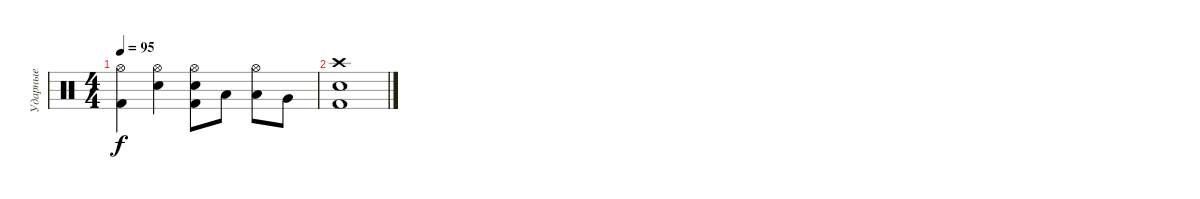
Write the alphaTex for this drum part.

\track ("Ударные" "Ударные") {instrument percussion}
\staff {score}
\articulation defaults
\ts (4 4)
\tempo 95
\clef neutral
\ks c
("Hi-Hat (open)" "Kick (hit) 2").4{dy f} ("Hi-Hat (open)" "Snare (hit) 2").4 ("Hi-Hat (open)" "Snare (hit) 2" "Kick (hit) 2").8 "Low Floor Tom (hit)".8 ("Hi-Hat (open)" "Low Floor Tom (hit)").8 "Very Low Tom (hit)".8 |
("Crash high (hit)" "Snare (hit) 2" "Kick (hit) 2").1
